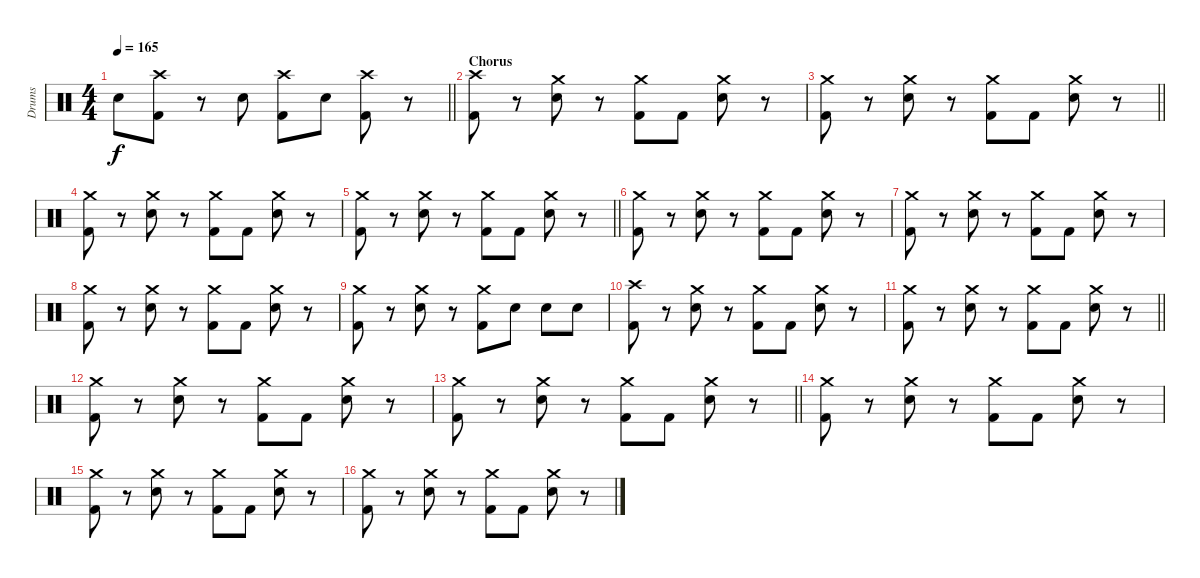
\track ("Drums" "Drums") {instrument percussion}
\staff {score}
\articulation defaults
\ts (4 4)
\tempo 165
\clef neutral
\barLineRight lightlight
\ks c "Electric Snare (hit)".8{dy f}
("Crash high (hit)" "Kick (hit) 2").8 r.8 "Electric Snare (hit)".8 ("Crash high (hit)" "Kick (hit) 2").8 "Electric Snare (hit)".8 ("Crash high (hit)" "Kick (hit) 2").8 r.8 |
\section ("" "Chorus")
("Crash high (hit)" "Kick (hit) 2").8 r.8 ("Crash medium (hit)" "Electric Snare (hit)").8 r.8 ("Crash medium (hit)" "Kick (hit) 2").8 "Kick (hit) 2".8 ("Crash medium (hit)" "Electric Snare (hit)").8 r.8 |
\barLineRight lightlight
("Crash medium (hit)" "Kick (hit) 2").8 r.8 ("Crash medium (hit)" "Electric Snare (hit)").8 r.8 ("Crash medium (hit)" "Kick (hit) 2").8 "Kick (hit) 2".8 ("Crash medium (hit)" "Electric Snare (hit)").8 r.8 |
("Crash medium (hit)" "Kick (hit) 2").8 r.8 ("Crash medium (hit)" "Electric Snare (hit)").8 r.8 ("Crash medium (hit)" "Kick (hit) 2").8 "Kick (hit) 2".8 ("Crash medium (hit)" "Electric Snare (hit)").8 r.8 |
\barLineRight lightlight
("Crash medium (hit)" "Kick (hit) 2").8 r.8 ("Crash medium (hit)" "Electric Snare (hit)").8 r.8 ("Crash medium (hit)" "Kick (hit) 2").8 "Kick (hit) 2".8 ("Crash medium (hit)" "Electric Snare (hit)").8 r.8 |
("Crash medium (hit)" "Kick (hit) 2").8 r.8 ("Crash medium (hit)" "Electric Snare (hit)").8 r.8 ("Crash medium (hit)" "Kick (hit) 2").8 "Kick (hit) 2".8 ("Crash medium (hit)" "Electric Snare (hit)").8 r.8 |
("Crash medium (hit)" "Kick (hit) 2").8 r.8 ("Crash medium (hit)" "Electric Snare (hit)").8 r.8 ("Crash medium (hit)" "Kick (hit) 2").8 "Kick (hit) 2".8 ("Crash medium (hit)" "Electric Snare (hit)").8 r.8 |
("Crash medium (hit)" "Kick (hit) 2").8 r.8 ("Crash medium (hit)" "Electric Snare (hit)").8 r.8 ("Crash medium (hit)" "Kick (hit) 2").8 "Kick (hit) 2".8 ("Crash medium (hit)" "Electric Snare (hit)").8 r.8 |
("Crash medium (hit)" "Kick (hit) 2").8 r.8 ("Crash medium (hit)" "Electric Snare (hit)").8 r.8 ("Crash medium (hit)" "Kick (hit) 2").8 "Electric Snare (hit)".8 "Electric Snare (hit)".8 "Electric Snare (hit)".8 |
("Crash high (hit)" "Kick (hit) 2").8 r.8 ("Crash medium (hit)" "Electric Snare (hit)").8 r.8 ("Crash medium (hit)" "Kick (hit) 2").8 "Kick (hit) 2".8 ("Crash medium (hit)" "Electric Snare (hit)").8 r.8 |
\barLineRight lightlight
("Crash medium (hit)" "Kick (hit) 2").8 r.8 ("Crash medium (hit)" "Electric Snare (hit)").8 r.8 ("Crash medium (hit)" "Kick (hit) 2").8 "Kick (hit) 2".8 ("Crash medium (hit)" "Electric Snare (hit)").8 r.8 |
("Crash medium (hit)" "Kick (hit) 2").8 r.8 ("Crash medium (hit)" "Electric Snare (hit)").8 r.8 ("Crash medium (hit)" "Kick (hit) 2").8 "Kick (hit) 2".8 ("Crash medium (hit)" "Electric Snare (hit)").8 r.8 |
\barLineRight lightlight
("Crash medium (hit)" "Kick (hit) 2").8 r.8 ("Crash medium (hit)" "Electric Snare (hit)").8 r.8 ("Crash medium (hit)" "Kick (hit) 2").8 "Kick (hit) 2".8 ("Crash medium (hit)" "Electric Snare (hit)").8 r.8 |
("Crash medium (hit)" "Kick (hit) 2").8 r.8 ("Crash medium (hit)" "Electric Snare (hit)").8 r.8 ("Crash medium (hit)" "Kick (hit) 2").8 "Kick (hit) 2".8 ("Crash medium (hit)" "Electric Snare (hit)").8 r.8 |
("Crash medium (hit)" "Kick (hit) 2").8 r.8 ("Crash medium (hit)" "Electric Snare (hit)").8 r.8 ("Crash medium (hit)" "Kick (hit) 2").8 "Kick (hit) 2".8 ("Crash medium (hit)" "Electric Snare (hit)").8 r.8 |
("Crash medium (hit)" "Kick (hit) 2").8 r.8 ("Crash medium (hit)" "Electric Snare (hit)").8 r.8 ("Crash medium (hit)" "Kick (hit) 2").8 "Kick (hit) 2".8 ("Crash medium (hit)" "Electric Snare (hit)").8 r.8
